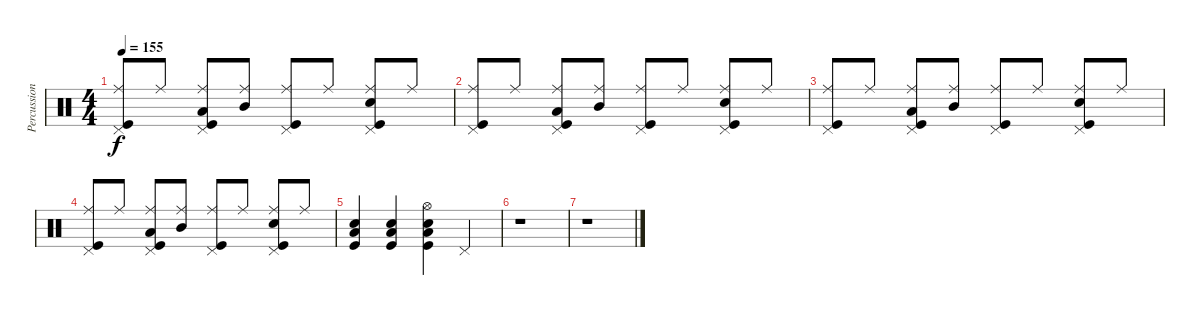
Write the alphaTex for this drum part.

\track ("Percussion" "Percussion") {instrument percussion}
\staff {score}
\articulation defaults
\ts (4 4)
\tempo 155
\clef neutral
\ks c
("Pedal Hi-Hat (hit)" "Ride (middle)" "Kick (hit)").8{dy f} "Ride (middle)".8 ("Pedal Hi-Hat (hit)" "Ride (middle)" "Low Tom (hit)" "Kick (hit)").8 ("Ride (middle)" "Mid Tom (hit)").8 ("Pedal Hi-Hat (hit)" "Ride (middle)" "Kick (hit)").8 "Ride (middle)".8 ("Pedal Hi-Hat (hit)" "Ride (middle)" "Electric Snare (hit)" "Kick (hit)").8 "Ride (middle)".8 |
("Pedal Hi-Hat (hit)" "Ride (middle)" "Kick (hit)").8 "Ride (middle)".8 ("Pedal Hi-Hat (hit)" "Ride (middle)" "Low Tom (hit)" "Kick (hit)").8 ("Ride (middle)" "Mid Tom (hit)").8 ("Pedal Hi-Hat (hit)" "Ride (middle)" "Kick (hit)").8 "Ride (middle)".8 ("Pedal Hi-Hat (hit)" "Ride (middle)" "Electric Snare (hit)" "Kick (hit)").8 "Ride (middle)".8 |
("Pedal Hi-Hat (hit)" "Ride (middle)" "Kick (hit)").8 "Ride (middle)".8 ("Pedal Hi-Hat (hit)" "Ride (middle)" "Low Tom (hit)" "Kick (hit)").8 ("Ride (middle)" "Mid Tom (hit)").8 ("Pedal Hi-Hat (hit)" "Ride (middle)" "Kick (hit)").8 "Ride (middle)".8 ("Pedal Hi-Hat (hit)" "Ride (middle)" "Electric Snare (hit)" "Kick (hit)").8 "Ride (middle)".8 |
("Pedal Hi-Hat (hit)" "Ride (middle)" "Kick (hit)").8 "Ride (middle)".8 ("Pedal Hi-Hat (hit)" "Ride (middle)" "Low Tom (hit)" "Kick (hit)").8 ("Ride (middle)" "Mid Tom (hit)").8 ("Pedal Hi-Hat (hit)" "Ride (middle)" "Kick (hit)").8 "Ride (middle)".8 ("Pedal Hi-Hat (hit)" "Ride (middle)" "Electric Snare (hit)" "Kick (hit)").8 "Ride (middle)".8 |
("Electric Snare (hit)" "Low Tom (hit)" "Kick (hit)").4 ("Electric Snare (hit)" "Low Tom (hit)" "Kick (hit)").4 ("Hi-Hat (open)" "Electric Snare (hit)" "Low Tom (hit)" "Kick (hit)").4 "Pedal Hi-Hat (hit)".4 |
r.1 |
r.1
